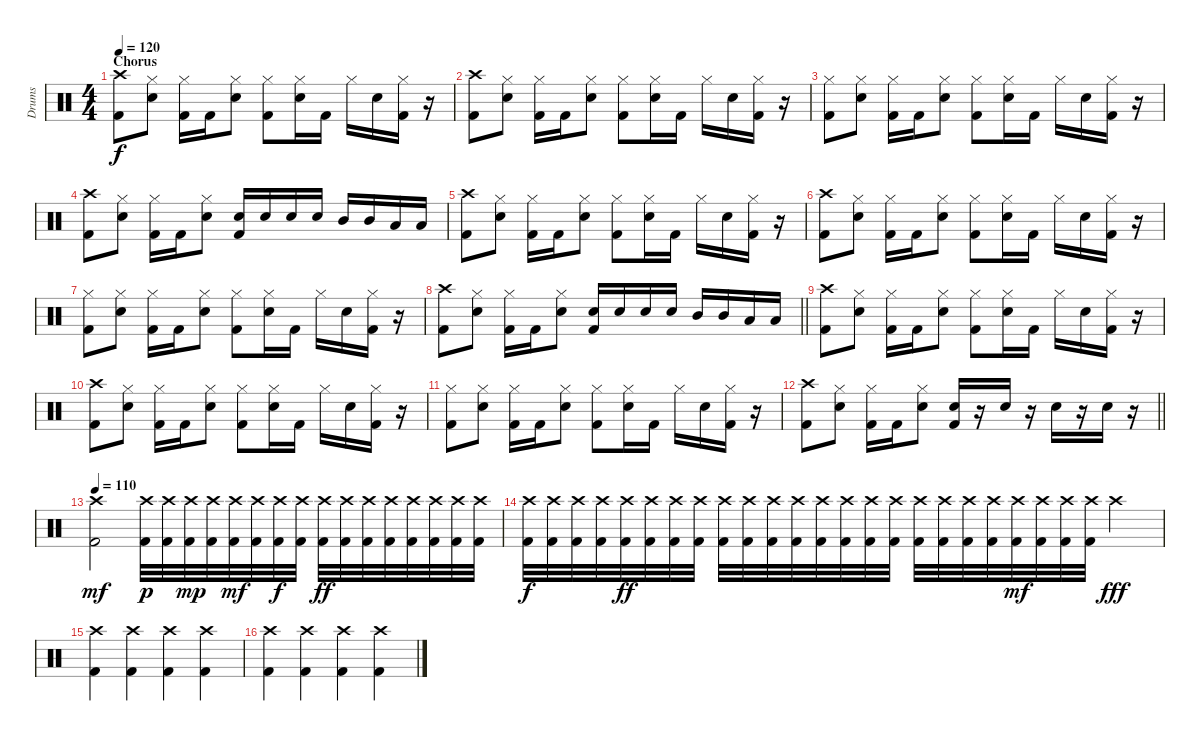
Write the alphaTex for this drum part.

\track ("Drums" "Drums") {instrument percussion}
\staff {score}
\articulation defaults
\ts (4 4)
\section ("" "Chorus")
\tempo 120
\clef neutral
\ks c
("Crash high (hit)" "Kick (hit) 2").8{dy f} ("Hi-Hat (closed)" "Snare (hit) 2").8 ("Hi-Hat (closed)" "Kick (hit) 2").16 "Kick (hit) 2".16 ("Hi-Hat (closed)" "Snare (hit) 2").8 ("Hi-Hat (closed)" "Kick (hit) 2").8 ("Hi-Hat (closed)" "Snare (hit) 2").16 "Kick (hit) 2".16 "Hi-Hat (closed)".16 "Snare (hit) 2".16 ("Hi-Hat (closed)" "Kick (hit) 2").16 r.16 |
("Crash high (hit)" "Kick (hit) 2").8 ("Hi-Hat (closed)" "Snare (hit) 2").8 ("Hi-Hat (closed)" "Kick (hit) 2").16 "Kick (hit) 2".16 ("Hi-Hat (closed)" "Snare (hit) 2").8 ("Hi-Hat (closed)" "Kick (hit) 2").8 ("Hi-Hat (closed)" "Snare (hit) 2").16 "Kick (hit) 2".16 "Hi-Hat (closed)".16 "Snare (hit) 2".16 ("Hi-Hat (closed)" "Kick (hit) 2").16 r.16 |
("Hi-Hat (closed)" "Kick (hit) 2").8 ("Hi-Hat (closed)" "Snare (hit) 2").8 ("Hi-Hat (closed)" "Kick (hit) 2").16 "Kick (hit) 2".16 ("Hi-Hat (closed)" "Snare (hit) 2").8 ("Hi-Hat (closed)" "Kick (hit) 2").8 ("Hi-Hat (closed)" "Snare (hit) 2").16 "Kick (hit) 2".16 "Hi-Hat (closed)".16 "Snare (hit) 2".16 ("Hi-Hat (closed)" "Kick (hit) 2").16 r.16 |
("Crash high (hit)" "Kick (hit) 2").8 ("Hi-Hat (closed)" "Snare (hit) 2").8 ("Hi-Hat (closed)" "Kick (hit) 2").16 "Kick (hit) 2".16 ("Hi-Hat (closed)" "Snare (hit) 2").8 ("Snare (hit) 2" "Kick (hit) 2").16 "Snare (hit) 2".16 "Snare (hit) 2".16 "Snare (hit) 2".16 "Mid Tom (hit)".16 "Mid Tom (hit)".16 "Low Tom (hit)".16 "Low Tom (hit)".16 |
("Crash high (hit)" "Kick (hit) 2").8 ("Hi-Hat (closed)" "Snare (hit) 2").8 ("Hi-Hat (closed)" "Kick (hit) 2").16 "Kick (hit) 2".16 ("Hi-Hat (closed)" "Snare (hit) 2").8 ("Hi-Hat (closed)" "Kick (hit) 2").8 ("Hi-Hat (closed)" "Snare (hit) 2").16 "Kick (hit) 2".16 "Hi-Hat (closed)".16 "Snare (hit) 2".16 ("Hi-Hat (closed)" "Kick (hit) 2").16 r.16 |
("Crash high (hit)" "Kick (hit) 2").8 ("Hi-Hat (closed)" "Snare (hit) 2").8 ("Hi-Hat (closed)" "Kick (hit) 2").16 "Kick (hit) 2".16 ("Hi-Hat (closed)" "Snare (hit) 2").8 ("Hi-Hat (closed)" "Kick (hit) 2").8 ("Hi-Hat (closed)" "Snare (hit) 2").16 "Kick (hit) 2".16 "Hi-Hat (closed)".16 "Snare (hit) 2".16 ("Hi-Hat (closed)" "Kick (hit) 2").16 r.16 |
("Hi-Hat (closed)" "Kick (hit) 2").8 ("Hi-Hat (closed)" "Snare (hit) 2").8 ("Hi-Hat (closed)" "Kick (hit) 2").16 "Kick (hit) 2".16 ("Hi-Hat (closed)" "Snare (hit) 2").8 ("Hi-Hat (closed)" "Kick (hit) 2").8 ("Hi-Hat (closed)" "Snare (hit) 2").16 "Kick (hit) 2".16 "Hi-Hat (closed)".16 "Snare (hit) 2".16 ("Hi-Hat (closed)" "Kick (hit) 2").16 r.16 |
\barLineRight lightlight
("Crash high (hit)" "Kick (hit) 2").8 ("Hi-Hat (closed)" "Snare (hit) 2").8 ("Hi-Hat (closed)" "Kick (hit) 2").16 "Kick (hit) 2".16 ("Hi-Hat (closed)" "Snare (hit) 2").8 ("Snare (hit) 2" "Kick (hit) 2").16 "Snare (hit) 2".16 "Snare (hit) 2".16 "Snare (hit) 2".16 "Mid Tom (hit)".16 "Mid Tom (hit)".16 "Low Tom (hit)".16 "Low Tom (hit)".16 |
("Crash high (hit)" "Kick (hit) 2").8 ("Hi-Hat (closed)" "Snare (hit) 2").8 ("Hi-Hat (closed)" "Kick (hit) 2").16 "Kick (hit) 2".16 ("Hi-Hat (closed)" "Snare (hit) 2").8 ("Hi-Hat (closed)" "Kick (hit) 2").8 ("Hi-Hat (closed)" "Snare (hit) 2").16 "Kick (hit) 2".16 "Hi-Hat (closed)".16 "Snare (hit) 2".16 ("Hi-Hat (closed)" "Kick (hit) 2").16 r.16 |
("Crash high (hit)" "Kick (hit) 2").8 ("Hi-Hat (closed)" "Snare (hit) 2").8 ("Hi-Hat (closed)" "Kick (hit) 2").16 "Kick (hit) 2".16 ("Hi-Hat (closed)" "Snare (hit) 2").8 ("Hi-Hat (closed)" "Kick (hit) 2").8 ("Hi-Hat (closed)" "Snare (hit) 2").16 "Kick (hit) 2".16 "Hi-Hat (closed)".16 "Snare (hit) 2".16 ("Hi-Hat (closed)" "Kick (hit) 2").16 r.16 |
("Hi-Hat (closed)" "Kick (hit) 2").8 ("Hi-Hat (closed)" "Snare (hit) 2").8 ("Hi-Hat (closed)" "Kick (hit) 2").16 "Kick (hit) 2".16 ("Hi-Hat (closed)" "Snare (hit) 2").8 ("Hi-Hat (closed)" "Kick (hit) 2").8 ("Hi-Hat (closed)" "Snare (hit) 2").16 "Kick (hit) 2".16 "Hi-Hat (closed)".16 "Snare (hit) 2".16 ("Hi-Hat (closed)" "Kick (hit) 2").16 r.16 |
\barLineRight lightlight
("Crash high (hit)" "Kick (hit) 2").8 ("Hi-Hat (closed)" "Snare (hit) 2").8 ("Hi-Hat (closed)" "Kick (hit) 2").16 "Kick (hit) 2".16 ("Hi-Hat (closed)" "Snare (hit) 2").8 ("Snare (hit) 2" "Kick (hit) 2").16 r.16 "Snare (hit) 2".16 r.16 "Snare (hit) 2".16 r.16 "Snare (hit) 2".16 r.16 |
\tempo 110
("Crash high (hit)" "Kick (hit) 2").2{dy mf} ("Crash high (hit)" "Kick (hit) 2").32{dy p} ("Crash high (hit)" "Kick (hit) 2").32 ("Crash high (hit)" "Kick (hit) 2").32{dy mp} ("Crash high (hit)" "Kick (hit) 2").32 ("Crash high (hit)" "Kick (hit) 2").32{dy mf} ("Crash high (hit)" "Kick (hit) 2").32 ("Crash high (hit)" "Kick (hit) 2").32{dy f} ("Crash high (hit)" "Kick (hit) 2").32 ("Crash high (hit)" "Kick (hit) 2").32{dy ff} ("Crash high (hit)" "Kick (hit) 2").32 ("Crash high (hit)" "Kick (hit) 2").32 ("Crash high (hit)" "Kick (hit) 2").32 ("Crash high (hit)" "Kick (hit) 2").32 ("Crash high (hit)" "Kick (hit) 2").32 ("Crash high (hit)" "Kick (hit) 2").32 ("Crash high (hit)" "Kick (hit) 2").32 |
("Crash high (hit)" "Kick (hit) 2").32{dy f} ("Crash high (hit)" "Kick (hit) 2").32 ("Crash high (hit)" "Kick (hit) 2").32 ("Crash high (hit)" "Kick (hit) 2").32 ("Crash high (hit)" "Kick (hit) 2").32{dy ff} ("Crash high (hit)" "Kick (hit) 2").32 ("Crash high (hit)" "Kick (hit) 2").32 ("Crash high (hit)" "Kick (hit) 2").32 ("Crash high (hit)" "Kick (hit) 2").32 ("Crash high (hit)" "Kick (hit) 2").32 ("Crash high (hit)" "Kick (hit) 2").32 ("Crash high (hit)" "Kick (hit) 2").32 ("Crash high (hit)" "Kick (hit) 2").32 ("Crash high (hit)" "Kick (hit) 2").32 ("Crash high (hit)" "Kick (hit) 2").32 ("Crash high (hit)" "Kick (hit) 2").32 ("Crash high (hit)" "Kick (hit) 2").32 ("Crash high (hit)" "Kick (hit) 2").32 ("Crash high (hit)" "Kick (hit) 2").32 ("Crash high (hit)" "Kick (hit) 2").32 ("Crash high (hit)" "Kick (hit) 2").32{dy mf} ("Crash high (hit)" "Kick (hit) 2").32 ("Crash high (hit)" "Kick (hit) 2").32 ("Crash high (hit)" "Kick (hit) 2").32 "Crash high (hit)".4{dy fff} |
("Crash high (hit)" "Kick (hit) 2").4 ("Crash high (hit)" "Kick (hit) 2").4 ("Crash high (hit)" "Kick (hit) 2").4 ("Crash high (hit)" "Kick (hit) 2").4 |
("Crash high (hit)" "Kick (hit) 2").4 ("Crash high (hit)" "Kick (hit) 2").4 ("Crash high (hit)" "Kick (hit) 2").4 ("Crash high (hit)" "Kick (hit) 2").4
